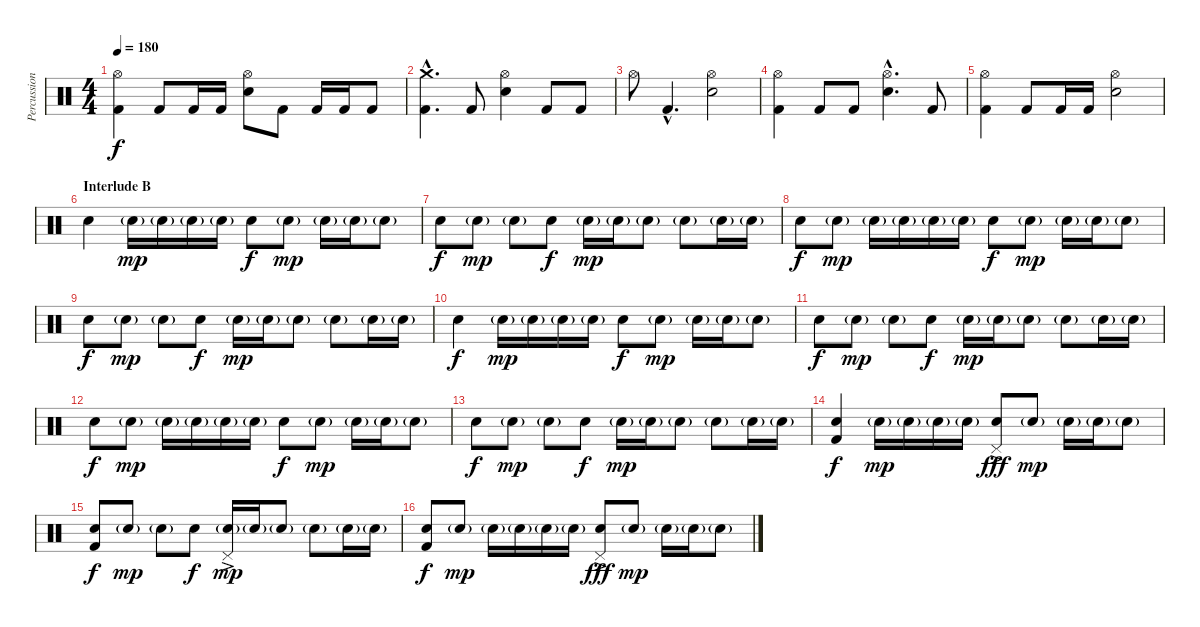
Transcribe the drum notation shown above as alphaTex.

\track ("Percussion" "Percussion") {instrument percussion}
\staff {score}
\articulation defaults
\ts (4 4)
\tempo 180
\clef neutral
\ks c
("Hi-Hat (open)" "Kick (hit) 2").4{dy f} "Kick (hit) 2".8 "Kick (hit) 2".16 "Kick (hit) 2".16 ("Hi-Hat (open)" "Snare (hit) 2").8 "Kick (hit) 2".8 "Kick (hit) 2".16 "Kick (hit) 2".16 "Kick (hit) 2".8 |
("Crash medium (hit)"{hac} "Kick (hit) 2"{hac}).4{d} "Kick (hit) 2".8 ("Hi-Hat (open)" "Snare (hit) 2").4 "Kick (hit) 2".8 "Kick (hit) 2".8 |
"Hi-Hat (open)".8 "Kick (hit) 2"{hac}.4{d} ("Hi-Hat (open)" "Snare (hit) 2").2 |
("Hi-Hat (open)" "Kick (hit) 2").4 "Kick (hit) 2".8 "Kick (hit) 2".8 ("Hi-Hat (open)"{hac} "Snare (hit) 2"{hac}).4{d} "Kick (hit) 2".8 |
("Hi-Hat (open)" "Kick (hit) 2").4 "Kick (hit) 2".8 "Kick (hit) 2".16 "Kick (hit) 2".16 ("Hi-Hat (open)" "Snare (hit) 2").2 |
\section ("" "Interlude B")
"Electric Snare (hit)".4 "Electric Snare (hit)"{g}.16{dy mp} "Electric Snare (hit)"{g}.16 "Electric Snare (hit)"{g}.16 "Electric Snare (hit)"{g}.16 "Electric Snare (hit)".8{dy f} "Electric Snare (hit)"{g}.8{dy mp} "Electric Snare (hit)"{g}.16 "Electric Snare (hit)"{g}.16 "Electric Snare (hit)"{g}.8 |
"Electric Snare (hit)".8{dy f} "Electric Snare (hit)"{g}.8{dy mp} "Electric Snare (hit)"{g}.8 "Electric Snare (hit)".8{dy f} "Electric Snare (hit)"{g}.16{dy mp} "Electric Snare (hit)"{g}.16 "Electric Snare (hit)"{g}.8 "Electric Snare (hit)"{g}.8 "Electric Snare (hit)"{g}.16 "Electric Snare (hit)"{g}.16 |
"Electric Snare (hit)".8{dy f} "Electric Snare (hit)"{g}.8{dy mp} "Electric Snare (hit)"{g}.16 "Electric Snare (hit)"{g}.16 "Electric Snare (hit)"{g}.16 "Electric Snare (hit)"{g}.16 "Electric Snare (hit)".8{dy f} "Electric Snare (hit)"{g}.8{dy mp} "Electric Snare (hit)"{g}.16 "Electric Snare (hit)"{g}.16 "Electric Snare (hit)"{g}.8 |
"Electric Snare (hit)".8{dy f} "Electric Snare (hit)"{g}.8{dy mp} "Electric Snare (hit)"{g}.8 "Electric Snare (hit)".8{dy f} "Electric Snare (hit)"{g}.16{dy mp} "Electric Snare (hit)"{g}.16 "Electric Snare (hit)"{g}.8 "Electric Snare (hit)"{g}.8 "Electric Snare (hit)"{g}.16 "Electric Snare (hit)"{g}.16 |
"Electric Snare (hit)".4{dy f} "Electric Snare (hit)"{g}.16{dy mp} "Electric Snare (hit)"{g}.16 "Electric Snare (hit)"{g}.16 "Electric Snare (hit)"{g}.16 "Electric Snare (hit)".8{dy f} "Electric Snare (hit)"{g}.8{dy mp} "Electric Snare (hit)"{g}.16 "Electric Snare (hit)"{g}.16 "Electric Snare (hit)"{g}.8 |
"Electric Snare (hit)".8{dy f} "Electric Snare (hit)"{g}.8{dy mp} "Electric Snare (hit)"{g}.8 "Electric Snare (hit)".8{dy f} "Electric Snare (hit)"{g}.16{dy mp} "Electric Snare (hit)"{g}.16 "Electric Snare (hit)"{g}.8 "Electric Snare (hit)"{g}.8 "Electric Snare (hit)"{g}.16 "Electric Snare (hit)"{g}.16 |
"Electric Snare (hit)".8{dy f} "Electric Snare (hit)"{g}.8{dy mp} "Electric Snare (hit)"{g}.16 "Electric Snare (hit)"{g}.16 "Electric Snare (hit)"{g}.16 "Electric Snare (hit)"{g}.16 "Electric Snare (hit)".8{dy f} "Electric Snare (hit)"{g}.8{dy mp} "Electric Snare (hit)"{g}.16 "Electric Snare (hit)"{g}.16 "Electric Snare (hit)"{g}.8 |
"Electric Snare (hit)".8{dy f} "Electric Snare (hit)"{g}.8{dy mp} "Electric Snare (hit)"{g}.8 "Electric Snare (hit)".8{dy f} "Electric Snare (hit)"{g}.16{dy mp} "Electric Snare (hit)"{g}.16 "Electric Snare (hit)"{g}.8 "Electric Snare (hit)"{g}.8 "Electric Snare (hit)"{g}.16 "Electric Snare (hit)"{g}.16 |
("Electric Snare (hit)" "Kick (hit) 2").4{dy f} "Electric Snare (hit)"{g}.16{dy mp} "Electric Snare (hit)"{g}.16 "Electric Snare (hit)"{g}.16 "Electric Snare (hit)"{g}.16 ("Pedal Hi-Hat (hit)"{ac} "Electric Snare (hit)").8{dy fff} "Electric Snare (hit)"{g}.8{dy mp} "Electric Snare (hit)"{g}.16 "Electric Snare (hit)"{g}.16 "Electric Snare (hit)"{g}.8 |
("Electric Snare (hit)" "Kick (hit) 2").8{dy f} "Electric Snare (hit)"{g}.8{dy mp} "Electric Snare (hit)"{g}.8 "Electric Snare (hit)".8{dy f} ("Pedal Hi-Hat (hit)"{ac} "Electric Snare (hit)"{g}).16{dy mp} "Electric Snare (hit)"{g}.16 "Electric Snare (hit)"{g}.8 "Electric Snare (hit)"{g}.8 "Electric Snare (hit)"{g}.16 "Electric Snare (hit)"{g}.16 |
("Electric Snare (hit)" "Kick (hit) 2").8{dy f} "Electric Snare (hit)"{g}.8{dy mp} "Electric Snare (hit)"{g}.16 "Electric Snare (hit)"{g}.16 "Electric Snare (hit)"{g}.16 "Electric Snare (hit)"{g}.16 ("Pedal Hi-Hat (hit)"{ac} "Electric Snare (hit)").8{dy fff} "Electric Snare (hit)"{g}.8{dy mp} "Electric Snare (hit)"{g}.16 "Electric Snare (hit)"{g}.16 "Electric Snare (hit)"{g}.8
